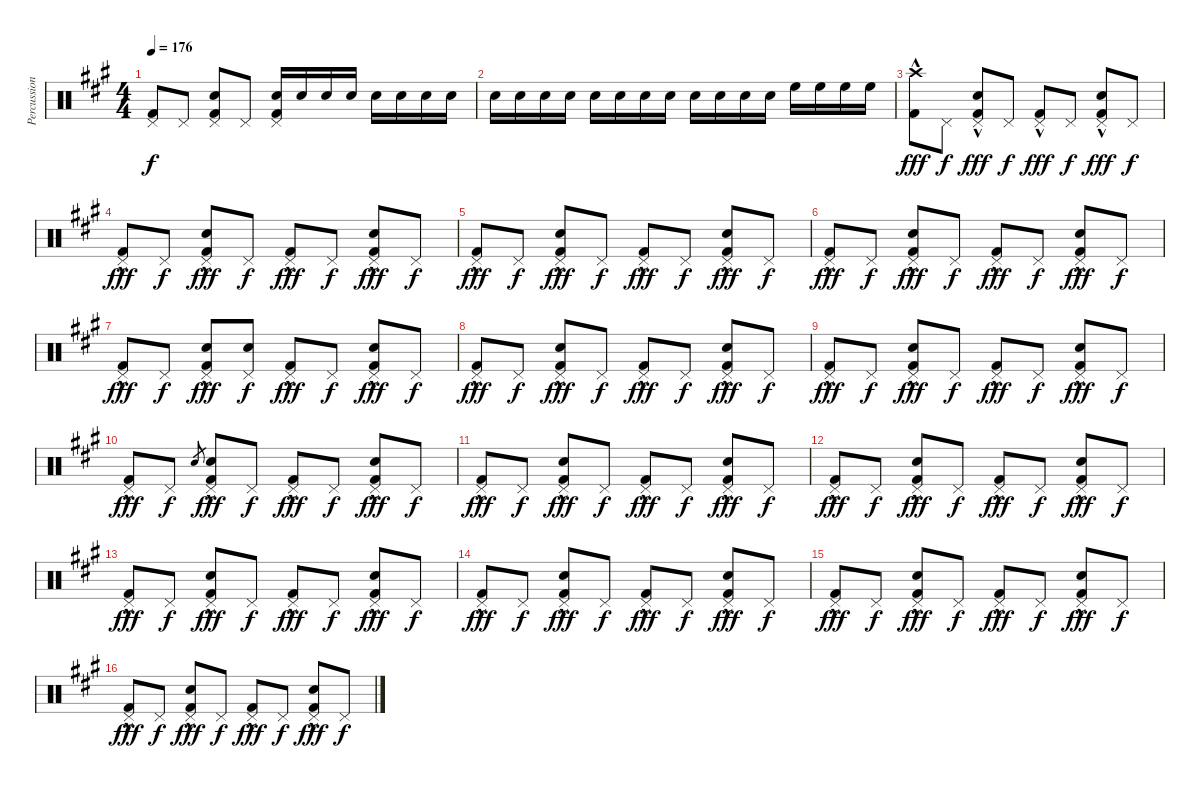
\track ("Percussion" "Percussion") {instrument percussion}
\staff {score}
\articulation defaults
\ts (4 4)
\tempo 176
\clef neutral
\ks a
("Pedal Hi-Hat (hit)" "Kick (hit) 2").8{dy f} "Pedal Hi-Hat (hit)".8 ("Pedal Hi-Hat (hit)" "Snare (hit) 2" "Kick (hit) 2").8 "Pedal Hi-Hat (hit)".8 ("Pedal Hi-Hat (hit)" "Snare (hit) 2" "Kick (hit) 2").16 "Snare (hit) 2".16{volume 5} "Snare (hit) 2".16 "Snare (hit) 2".16 "Snare (hit) 2".16{volume 8} "Snare (hit) 2".16 "Snare (hit) 2".16 "Snare (hit) 2".16 |
"Snare (hit) 2".16{volume 10} "Snare (hit) 2".16 "Snare (hit) 2".16 "Snare (hit) 2".16 "Snare (hit) 2".16 "Snare (hit) 2".16 "Snare (hit) 2".16 "Snare (hit) 2".16{volume 13} "Snare (hit) 2".16{volume 16} "Snare (hit) 2".16 "Snare (hit) 2".16 "Snare (hit) 2".16 "High Floor Tom (hit)".16 "High Floor Tom (hit)".16 "High Floor Tom (hit)".16 "High Floor Tom (hit)".16 |
("Crash high (hit)"{hac} "Kick (hit) 2").8{dy fff} "Pedal Hi-Hat (hit)".8{dy f} ("Pedal Hi-Hat (hit)"{hac} "Snare (hit) 2" "Kick (hit) 2").8{dy fff} "Pedal Hi-Hat (hit)".8{dy f} ("Pedal Hi-Hat (hit)"{hac} "Kick (hit) 2").8{dy fff} "Pedal Hi-Hat (hit)".8{dy f} ("Pedal Hi-Hat (hit)"{hac} "Snare (hit) 2" "Kick (hit) 2").8{dy fff} "Pedal Hi-Hat (hit)".8{dy f} |
("Pedal Hi-Hat (hit)"{hac} "Kick (hit) 2").8{dy fff} "Pedal Hi-Hat (hit)".8{dy f} ("Pedal Hi-Hat (hit)"{hac} "Snare (hit) 2" "Kick (hit) 2").8{dy fff} "Pedal Hi-Hat (hit)".8{dy f} ("Pedal Hi-Hat (hit)"{hac} "Kick (hit) 2").8{dy fff} "Pedal Hi-Hat (hit)".8{dy f} ("Pedal Hi-Hat (hit)"{hac} "Snare (hit) 2" "Kick (hit) 2").8{dy fff} "Pedal Hi-Hat (hit)".8{dy f} |
("Pedal Hi-Hat (hit)"{hac} "Kick (hit) 2").8{dy fff} "Pedal Hi-Hat (hit)".8{dy f} ("Pedal Hi-Hat (hit)"{hac} "Snare (hit) 2" "Kick (hit) 2").8{dy fff} "Pedal Hi-Hat (hit)".8{dy f} ("Pedal Hi-Hat (hit)"{hac} "Kick (hit) 2").8{dy fff} "Pedal Hi-Hat (hit)".8{dy f} ("Pedal Hi-Hat (hit)"{hac} "Snare (hit) 2" "Kick (hit) 2").8{dy fff} "Pedal Hi-Hat (hit)".8{dy f} |
("Pedal Hi-Hat (hit)"{hac} "Kick (hit) 2").8{dy fff} "Pedal Hi-Hat (hit)".8{dy f} ("Pedal Hi-Hat (hit)"{hac} "Snare (hit) 2" "Kick (hit) 2").8{dy fff} "Pedal Hi-Hat (hit)".8{dy f} ("Pedal Hi-Hat (hit)"{hac} "Kick (hit) 2").8{dy fff} "Pedal Hi-Hat (hit)".8{dy f} ("Pedal Hi-Hat (hit)"{hac} "Snare (hit) 2" "Kick (hit) 2").8{dy fff} "Pedal Hi-Hat (hit)".8{dy f} |
("Pedal Hi-Hat (hit)"{hac} "Kick (hit) 2").8{dy fff} "Pedal Hi-Hat (hit)".8{dy f} ("Pedal Hi-Hat (hit)"{hac} "Snare (hit) 2" "Kick (hit) 2").8{dy fff} ("Pedal Hi-Hat (hit)" "Snare (hit) 2").8{dy f} ("Pedal Hi-Hat (hit)"{hac} "Kick (hit) 2").8{dy fff} "Pedal Hi-Hat (hit)".8{dy f} ("Pedal Hi-Hat (hit)"{hac} "Snare (hit) 2" "Kick (hit) 2").8{dy fff} "Pedal Hi-Hat (hit)".8{dy f} |
("Pedal Hi-Hat (hit)"{hac} "Kick (hit) 2").8{dy fff} "Pedal Hi-Hat (hit)".8{dy f} ("Pedal Hi-Hat (hit)"{hac} "Snare (hit) 2" "Kick (hit) 2").8{dy fff} "Pedal Hi-Hat (hit)".8{dy f} ("Pedal Hi-Hat (hit)"{hac} "Kick (hit) 2").8{dy fff} "Pedal Hi-Hat (hit)".8{dy f} ("Pedal Hi-Hat (hit)"{hac} "Snare (hit) 2" "Kick (hit) 2").8{dy fff} "Pedal Hi-Hat (hit)".8{dy f} |
("Pedal Hi-Hat (hit)"{hac} "Kick (hit) 2").8{dy fff} "Pedal Hi-Hat (hit)".8{dy f} ("Pedal Hi-Hat (hit)"{hac} "Snare (hit) 2" "Kick (hit) 2").8{dy fff} "Pedal Hi-Hat (hit)".8{dy f} ("Pedal Hi-Hat (hit)"{hac} "Kick (hit) 2").8{dy fff} "Pedal Hi-Hat (hit)".8{dy f} ("Pedal Hi-Hat (hit)"{hac} "Snare (hit) 2" "Kick (hit) 2").8{dy fff} "Pedal Hi-Hat (hit)".8{dy f} |
("Pedal Hi-Hat (hit)"{hac} "Kick (hit) 2").8{dy fff} "Pedal Hi-Hat (hit)".8{dy f} "Snare (hit) 2".8{gr} ("Pedal Hi-Hat (hit)"{hac} "Snare (hit) 2" "Kick (hit) 2").8{dy fff} "Pedal Hi-Hat (hit)".8{dy f} ("Pedal Hi-Hat (hit)"{hac} "Kick (hit) 2").8{dy fff} "Pedal Hi-Hat (hit)".8{dy f} ("Pedal Hi-Hat (hit)"{hac} "Snare (hit) 2" "Kick (hit) 2").8{dy fff} "Pedal Hi-Hat (hit)".8{dy f} |
("Pedal Hi-Hat (hit)"{hac} "Kick (hit) 2").8{dy fff} "Pedal Hi-Hat (hit)".8{dy f} ("Pedal Hi-Hat (hit)"{hac} "Snare (hit) 2" "Kick (hit) 2").8{dy fff} "Pedal Hi-Hat (hit)".8{dy f} ("Pedal Hi-Hat (hit)"{hac} "Kick (hit) 2").8{dy fff} "Pedal Hi-Hat (hit)".8{dy f} ("Pedal Hi-Hat (hit)"{hac} "Snare (hit) 2" "Kick (hit) 2").8{dy fff} "Pedal Hi-Hat (hit)".8{dy f} |
("Pedal Hi-Hat (hit)"{hac} "Kick (hit) 2").8{dy fff} "Pedal Hi-Hat (hit)".8{dy f} ("Pedal Hi-Hat (hit)"{hac} "Snare (hit) 2" "Kick (hit) 2").8{dy fff} "Pedal Hi-Hat (hit)".8{dy f} ("Pedal Hi-Hat (hit)"{hac} "Kick (hit) 2").8{dy fff} "Pedal Hi-Hat (hit)".8{dy f} ("Pedal Hi-Hat (hit)"{hac} "Snare (hit) 2" "Kick (hit) 2").8{dy fff} "Pedal Hi-Hat (hit)".8{dy f} |
("Pedal Hi-Hat (hit)"{hac} "Kick (hit) 2").8{dy fff} "Pedal Hi-Hat (hit)".8{dy f} ("Pedal Hi-Hat (hit)"{hac} "Snare (hit) 2" "Kick (hit) 2").8{dy fff} "Pedal Hi-Hat (hit)".8{dy f} ("Pedal Hi-Hat (hit)"{hac} "Kick (hit) 2").8{dy fff} "Pedal Hi-Hat (hit)".8{dy f} ("Pedal Hi-Hat (hit)"{hac} "Snare (hit) 2" "Kick (hit) 2").8{dy fff} "Pedal Hi-Hat (hit)".8{dy f} |
("Pedal Hi-Hat (hit)"{hac} "Kick (hit) 2").8{dy fff} "Pedal Hi-Hat (hit)".8{dy f} ("Pedal Hi-Hat (hit)"{hac} "Snare (hit) 2" "Kick (hit) 2").8{dy fff} "Pedal Hi-Hat (hit)".8{dy f} ("Pedal Hi-Hat (hit)"{hac} "Kick (hit) 2").8{dy fff} "Pedal Hi-Hat (hit)".8{dy f} ("Pedal Hi-Hat (hit)"{hac} "Snare (hit) 2" "Kick (hit) 2").8{dy fff} "Pedal Hi-Hat (hit)".8{dy f} |
("Pedal Hi-Hat (hit)"{hac} "Kick (hit) 2").8{dy fff} "Pedal Hi-Hat (hit)".8{dy f} ("Pedal Hi-Hat (hit)"{hac} "Snare (hit) 2" "Kick (hit) 2").8{dy fff} "Pedal Hi-Hat (hit)".8{dy f} ("Pedal Hi-Hat (hit)"{hac} "Kick (hit) 2").8{dy fff} "Pedal Hi-Hat (hit)".8{dy f} ("Pedal Hi-Hat (hit)"{hac} "Snare (hit) 2" "Kick (hit) 2").8{dy fff} "Pedal Hi-Hat (hit)".8{dy f} |
("Pedal Hi-Hat (hit)"{hac} "Kick (hit) 2").8{dy fff} "Pedal Hi-Hat (hit)".8{dy f} ("Pedal Hi-Hat (hit)"{hac} "Snare (hit) 2" "Kick (hit) 2").8{dy fff} "Pedal Hi-Hat (hit)".8{dy f} ("Pedal Hi-Hat (hit)"{hac} "Kick (hit) 2").8{dy fff} "Pedal Hi-Hat (hit)".8{dy f} ("Pedal Hi-Hat (hit)"{hac} "Snare (hit) 2" "Kick (hit) 2").8{dy fff} "Pedal Hi-Hat (hit)".8{dy f}
